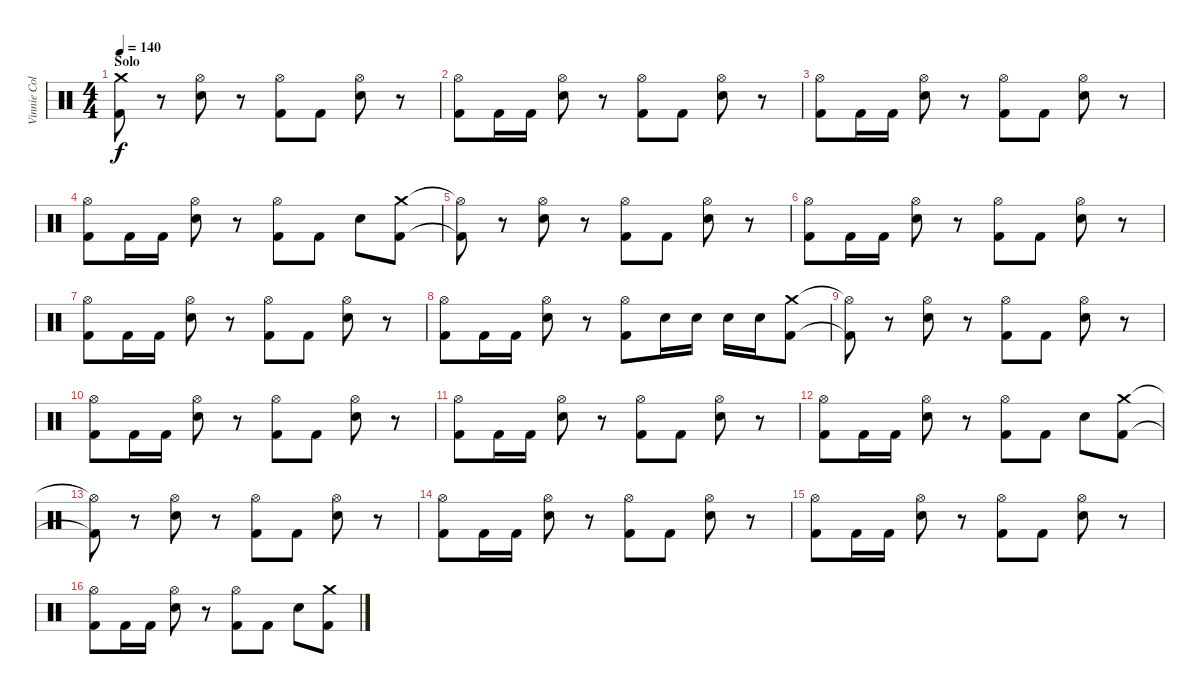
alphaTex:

\track ("Vinnie Colaiuta" "Vinnie Col") {instrument percussion}
\staff {score}
\articulation defaults
\ts (4 4)
\section ("" "Solo")
\tempo 140
\clef neutral
\ks c
("Crash medium (hit)"{t} "Kick (hit) 2"{t}).8{dy f} r.8 ("Hi-Hat (open)" "Snare (hit) 2").8 r.8 ("Hi-Hat (open)" "Kick (hit) 2").8 "Kick (hit) 2".8 ("Hi-Hat (open)" "Snare (hit) 2").8 r.8 |
("Hi-Hat (open)" "Kick (hit) 2").8 "Kick (hit) 2".16 "Kick (hit) 2".16 ("Hi-Hat (open)" "Snare (hit) 2").8 r.8 ("Hi-Hat (open)" "Kick (hit) 2").8 "Kick (hit) 2".8 ("Hi-Hat (open)" "Snare (hit) 2").8 r.8 |
("Hi-Hat (open)" "Kick (hit) 2").8 "Kick (hit) 2".16 "Kick (hit) 2".16 ("Hi-Hat (open)" "Snare (hit) 2").8 r.8 ("Hi-Hat (open)" "Kick (hit) 2").8 "Kick (hit) 2".8 ("Hi-Hat (open)" "Snare (hit) 2").8 r.8 |
("Hi-Hat (open)" "Kick (hit) 2").8 "Kick (hit) 2".16 "Kick (hit) 2".16 ("Hi-Hat (open)" "Snare (hit) 2").8 r.8 ("Hi-Hat (open)" "Kick (hit) 2").8 "Kick (hit) 2".8 "Snare (hit) 2".8 ("Crash medium (hit)" "Kick (hit) 2").8 |
("Hi-Hat (open)"{t} "Kick (hit) 2"{t}).8 r.8 ("Hi-Hat (open)" "Snare (hit) 2").8 r.8 ("Hi-Hat (open)" "Kick (hit) 2").8 "Kick (hit) 2".8 ("Hi-Hat (open)" "Snare (hit) 2").8 r.8 |
("Hi-Hat (open)" "Kick (hit) 2").8 "Kick (hit) 2".16 "Kick (hit) 2".16 ("Hi-Hat (open)" "Snare (hit) 2").8 r.8 ("Hi-Hat (open)" "Kick (hit) 2").8 "Kick (hit) 2".8 ("Hi-Hat (open)" "Snare (hit) 2").8 r.8 |
("Hi-Hat (open)" "Kick (hit) 2").8 "Kick (hit) 2".16 "Kick (hit) 2".16 ("Hi-Hat (open)" "Snare (hit) 2").8 r.8 ("Hi-Hat (open)" "Kick (hit) 2").8 "Kick (hit) 2".8 ("Hi-Hat (open)" "Snare (hit) 2").8 r.8 |
("Hi-Hat (open)" "Kick (hit) 2").8 "Kick (hit) 2".16 "Kick (hit) 2".16 ("Hi-Hat (open)" "Snare (hit) 2").8 r.8 ("Hi-Hat (open)" "Kick (hit) 2").8 "Snare (hit) 2".16 "Snare (hit) 2".16 "Snare (hit) 2".16 "Snare (hit) 2".16 ("Crash medium (hit)" "Kick (hit) 2").8 |
("Hi-Hat (open)"{t} "Kick (hit) 2"{t}).8 r.8 ("Hi-Hat (open)" "Snare (hit) 2").8 r.8 ("Hi-Hat (open)" "Kick (hit) 2").8 "Kick (hit) 2".8 ("Hi-Hat (open)" "Snare (hit) 2").8 r.8 |
("Hi-Hat (open)" "Kick (hit) 2").8 "Kick (hit) 2".16 "Kick (hit) 2".16 ("Hi-Hat (open)" "Snare (hit) 2").8 r.8 ("Hi-Hat (open)" "Kick (hit) 2").8 "Kick (hit) 2".8 ("Hi-Hat (open)" "Snare (hit) 2").8 r.8 |
("Hi-Hat (open)" "Kick (hit) 2").8 "Kick (hit) 2".16 "Kick (hit) 2".16 ("Hi-Hat (open)" "Snare (hit) 2").8 r.8 ("Hi-Hat (open)" "Kick (hit) 2").8 "Kick (hit) 2".8 ("Hi-Hat (open)" "Snare (hit) 2").8 r.8 |
("Hi-Hat (open)" "Kick (hit) 2").8 "Kick (hit) 2".16 "Kick (hit) 2".16 ("Hi-Hat (open)" "Snare (hit) 2").8 r.8 ("Hi-Hat (open)" "Kick (hit) 2").8 "Kick (hit) 2".8 "Snare (hit) 2".8 ("Crash medium (hit)" "Kick (hit) 2").8 |
("Hi-Hat (open)"{t} "Kick (hit) 2"{t}).8 r.8 ("Hi-Hat (open)" "Snare (hit) 2").8 r.8 ("Hi-Hat (open)" "Kick (hit) 2").8 "Kick (hit) 2".8 ("Hi-Hat (open)" "Snare (hit) 2").8 r.8 |
("Hi-Hat (open)" "Kick (hit) 2").8 "Kick (hit) 2".16 "Kick (hit) 2".16 ("Hi-Hat (open)" "Snare (hit) 2").8 r.8 ("Hi-Hat (open)" "Kick (hit) 2").8 "Kick (hit) 2".8 ("Hi-Hat (open)" "Snare (hit) 2").8 r.8 |
("Hi-Hat (open)" "Kick (hit) 2").8 "Kick (hit) 2".16 "Kick (hit) 2".16 ("Hi-Hat (open)" "Snare (hit) 2").8 r.8 ("Hi-Hat (open)" "Kick (hit) 2").8 "Kick (hit) 2".8 ("Hi-Hat (open)" "Snare (hit) 2").8 r.8 |
("Hi-Hat (open)" "Kick (hit) 2").8 "Kick (hit) 2".16 "Kick (hit) 2".16 ("Hi-Hat (open)" "Snare (hit) 2").8 r.8 ("Hi-Hat (open)" "Kick (hit) 2").8 "Kick (hit) 2".8 "Snare (hit) 2".8 ("Crash medium (hit)" "Kick (hit) 2").8
